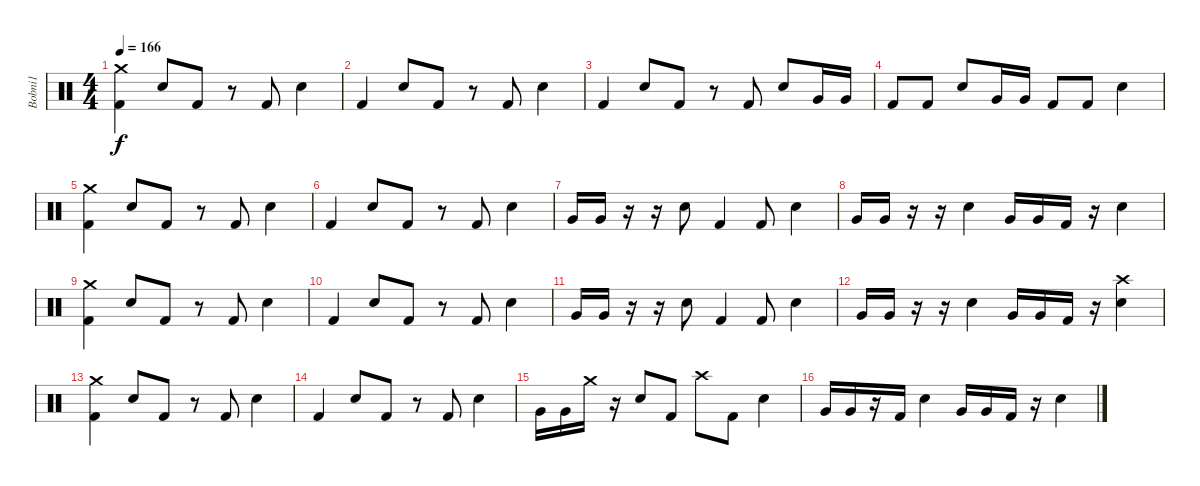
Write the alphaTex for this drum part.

\track ("Bobni1" "Bobni1") {instrument percussion}
\staff {score}
\articulation defaults
\ts (4 4)
\tempo 166
\clef neutral
\ks c
("Crash medium (hit)" "Kick (hit) 2").4{dy f} "Snare (hit) 2".8 "Kick (hit) 2".8 r.8 "Kick (hit) 2".8 "Snare (hit) 2".4 |
"Kick (hit) 2".4 "Snare (hit) 2".8 "Kick (hit) 2".8 r.8 "Kick (hit) 2".8 "Snare (hit) 2".4 |
"Kick (hit) 2".4 "Snare (hit) 2".8 "Kick (hit) 2".8 r.8 "Kick (hit) 2".8 "Snare (hit) 2".8 "Very Low Tom (hit)".16 "Very Low Tom (hit)".16 |
"Kick (hit) 2".8 "Kick (hit) 2".8 "Snare (hit) 2".8 "Very Low Tom (hit)".16 "Very Low Tom (hit)".16 "Kick (hit) 2".8 "Kick (hit) 2".8 "Snare (hit) 2".4 |
("Crash medium (hit)" "Kick (hit) 2").4 "Snare (hit) 2".8 "Kick (hit) 2".8 r.8 "Kick (hit) 2".8 "Snare (hit) 2".4 |
"Kick (hit) 2".4 "Snare (hit) 2".8 "Kick (hit) 2".8 r.8 "Kick (hit) 2".8 "Snare (hit) 2".4 |
"Very Low Tom (hit)".16 "Very Low Tom (hit)".16 r.16 r.16 "Snare (hit) 2".8 "Kick (hit) 2".4 "Kick (hit) 2".8 "Snare (hit) 2".4 |
"Very Low Tom (hit)".16 "Very Low Tom (hit)".16 r.16 r.16 "Snare (hit) 2".4 "Very Low Tom (hit)".16 "Very Low Tom (hit)".16 "Kick (hit) 2".16 r.16 "Snare (hit) 2".4 |
("Crash medium (hit)" "Kick (hit) 2").4 "Snare (hit) 2".8 "Kick (hit) 2".8 r.8 "Kick (hit) 2".8 "Snare (hit) 2".4 |
"Kick (hit) 2".4 "Snare (hit) 2".8 "Kick (hit) 2".8 r.8 "Kick (hit) 2".8 "Snare (hit) 2".4 |
"Very Low Tom (hit)".16 "Very Low Tom (hit)".16 r.16 r.16 "Snare (hit) 2".8 "Kick (hit) 2".4 "Kick (hit) 2".8 "Snare (hit) 2".4 |
"Very Low Tom (hit)".16 "Very Low Tom (hit)".16 r.16 r.16 "Snare (hit) 2".4 "Very Low Tom (hit)".16 "Very Low Tom (hit)".16 "Kick (hit) 2".16 r.16 ("Crash high (hit)" "Snare (hit) 2").4 |
("Crash medium (hit)" "Kick (hit) 2").4 "Snare (hit) 2".8 "Kick (hit) 2".8 r.8 "Kick (hit) 2".8 "Snare (hit) 2".4 |
"Kick (hit) 2".4 "Snare (hit) 2".8 "Kick (hit) 2".8 r.8 "Kick (hit) 2".8 "Snare (hit) 2".4 |
"Very Low Tom (hit)".16 "Very Low Tom (hit)".16 "Crash medium (hit)".16 r.16 "Snare (hit) 2".8 "Kick (hit) 2".8 "Crash high (hit)".8 "Kick (hit) 2".8 "Snare (hit) 2".4 |
"Very Low Tom (hit)".16 "Very Low Tom (hit)".16 r.16 "Kick (hit) 2".16 "Snare (hit) 2".4 "Very Low Tom (hit)".16 "Very Low Tom (hit)".16 "Kick (hit) 2".16 r.16 "Snare (hit) 2".4
